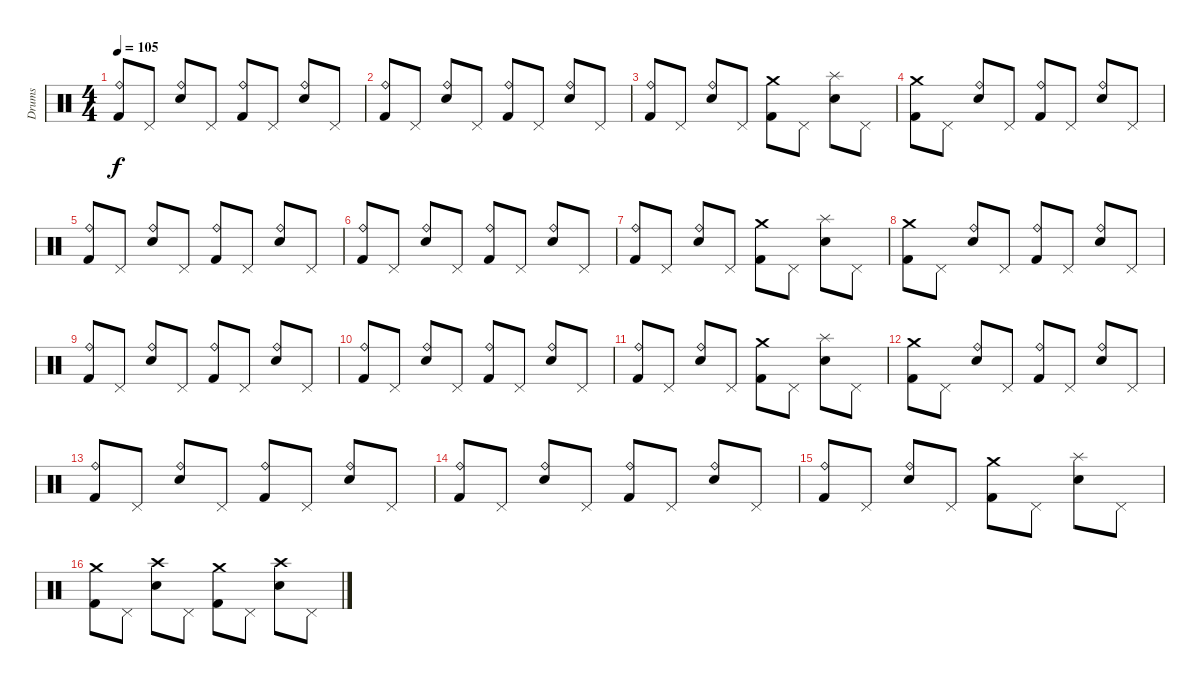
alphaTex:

\track ("Drums" "Drums") {instrument percussion}
\staff {score}
\articulation defaults
\ts (4 4)
\tempo 105
\clef neutral
\ks c
("Ride (bell)" "Kick (hit) 2").8{dy f} "Pedal Hi-Hat (hit)".8 ("Ride (bell)" "Snare (hit) 2").8 "Pedal Hi-Hat (hit)".8 ("Ride (bell)" "Kick (hit) 2").8 "Pedal Hi-Hat (hit)".8 ("Ride (bell)" "Snare (hit) 2").8 "Pedal Hi-Hat (hit)".8 |
("Ride (bell)" "Kick (hit) 2").8 "Pedal Hi-Hat (hit)".8 ("Ride (bell)" "Snare (hit) 2").8 "Pedal Hi-Hat (hit)".8 ("Ride (bell)" "Kick (hit) 2").8 "Pedal Hi-Hat (hit)".8 ("Ride (bell)" "Snare (hit) 2").8 "Pedal Hi-Hat (hit)".8 |
("Ride (bell)" "Kick (hit) 2").8 "Pedal Hi-Hat (hit)".8 ("Ride (bell)" "Snare (hit) 2").8 "Pedal Hi-Hat (hit)".8 ("Crash medium (hit)" "Kick (hit) 2").8 "Pedal Hi-Hat (hit)".8 ("Splash (hit)" "Snare (hit) 2").8 "Pedal Hi-Hat (hit)".8 |
("Crash medium (hit)" "Kick (hit) 2").8 "Pedal Hi-Hat (hit)".8 ("Ride (bell)" "Snare (hit) 2").8 "Pedal Hi-Hat (hit)".8 ("Ride (bell)" "Kick (hit) 2").8 "Pedal Hi-Hat (hit)".8 ("Ride (bell)" "Snare (hit) 2").8 "Pedal Hi-Hat (hit)".8 |
("Ride (bell)" "Kick (hit) 2").8 "Pedal Hi-Hat (hit)".8 ("Ride (bell)" "Snare (hit) 2").8 "Pedal Hi-Hat (hit)".8 ("Ride (bell)" "Kick (hit) 2").8 "Pedal Hi-Hat (hit)".8 ("Ride (bell)" "Snare (hit) 2").8 "Pedal Hi-Hat (hit)".8 |
("Ride (bell)" "Kick (hit) 2").8 "Pedal Hi-Hat (hit)".8 ("Ride (bell)" "Snare (hit) 2").8 "Pedal Hi-Hat (hit)".8 ("Ride (bell)" "Kick (hit) 2").8 "Pedal Hi-Hat (hit)".8 ("Ride (bell)" "Snare (hit) 2").8 "Pedal Hi-Hat (hit)".8 |
("Ride (bell)" "Kick (hit) 2").8 "Pedal Hi-Hat (hit)".8 ("Ride (bell)" "Snare (hit) 2").8 "Pedal Hi-Hat (hit)".8 ("Crash medium (hit)" "Kick (hit) 2").8 "Pedal Hi-Hat (hit)".8 ("Splash (hit)" "Snare (hit) 2").8 "Pedal Hi-Hat (hit)".8 |
("Crash medium (hit)" "Kick (hit) 2").8 "Pedal Hi-Hat (hit)".8 ("Ride (bell)" "Snare (hit) 2").8 "Pedal Hi-Hat (hit)".8 ("Ride (bell)" "Kick (hit) 2").8 "Pedal Hi-Hat (hit)".8 ("Ride (bell)" "Snare (hit) 2").8 "Pedal Hi-Hat (hit)".8 |
("Ride (bell)" "Kick (hit) 2").8 "Pedal Hi-Hat (hit)".8 ("Ride (bell)" "Snare (hit) 2").8 "Pedal Hi-Hat (hit)".8 ("Ride (bell)" "Kick (hit) 2").8 "Pedal Hi-Hat (hit)".8 ("Ride (bell)" "Snare (hit) 2").8 "Pedal Hi-Hat (hit)".8 |
("Ride (bell)" "Kick (hit) 2").8 "Pedal Hi-Hat (hit)".8 ("Ride (bell)" "Snare (hit) 2").8 "Pedal Hi-Hat (hit)".8 ("Ride (bell)" "Kick (hit) 2").8 "Pedal Hi-Hat (hit)".8 ("Ride (bell)" "Snare (hit) 2").8 "Pedal Hi-Hat (hit)".8 |
("Ride (bell)" "Kick (hit) 2").8 "Pedal Hi-Hat (hit)".8 ("Ride (bell)" "Snare (hit) 2").8 "Pedal Hi-Hat (hit)".8 ("Crash medium (hit)" "Kick (hit) 2").8 "Pedal Hi-Hat (hit)".8 ("Splash (hit)" "Snare (hit) 2").8 "Pedal Hi-Hat (hit)".8 |
("Crash medium (hit)" "Kick (hit) 2").8 "Pedal Hi-Hat (hit)".8 ("Ride (bell)" "Snare (hit) 2").8 "Pedal Hi-Hat (hit)".8 ("Ride (bell)" "Kick (hit) 2").8 "Pedal Hi-Hat (hit)".8 ("Ride (bell)" "Snare (hit) 2").8 "Pedal Hi-Hat (hit)".8 |
("Ride (bell)" "Kick (hit) 2").8 "Pedal Hi-Hat (hit)".8 ("Ride (bell)" "Snare (hit) 2").8 "Pedal Hi-Hat (hit)".8 ("Ride (bell)" "Kick (hit) 2").8 "Pedal Hi-Hat (hit)".8 ("Ride (bell)" "Snare (hit) 2").8 "Pedal Hi-Hat (hit)".8 |
("Ride (bell)" "Kick (hit) 2").8 "Pedal Hi-Hat (hit)".8 ("Ride (bell)" "Snare (hit) 2").8 "Pedal Hi-Hat (hit)".8 ("Ride (bell)" "Kick (hit) 2").8 "Pedal Hi-Hat (hit)".8 ("Ride (bell)" "Snare (hit) 2").8 "Pedal Hi-Hat (hit)".8 |
("Ride (bell)" "Kick (hit) 2").8 "Pedal Hi-Hat (hit)".8 ("Ride (bell)" "Snare (hit) 2").8 "Pedal Hi-Hat (hit)".8 ("Crash medium (hit)" "Kick (hit) 2").8 "Pedal Hi-Hat (hit)".8 ("Splash (hit)" "Snare (hit) 2").8 "Pedal Hi-Hat (hit)".8 |
("Crash medium (hit)" "Kick (hit) 2").8 "Pedal Hi-Hat (hit)".8 ("Crash high (hit)" "Snare (hit) 2").8 "Pedal Hi-Hat (hit)".8 ("Crash medium (hit)" "Kick (hit) 2").8 "Pedal Hi-Hat (hit)".8 ("Crash high (hit)" "Snare (hit) 2").8 "Pedal Hi-Hat (hit)".8
